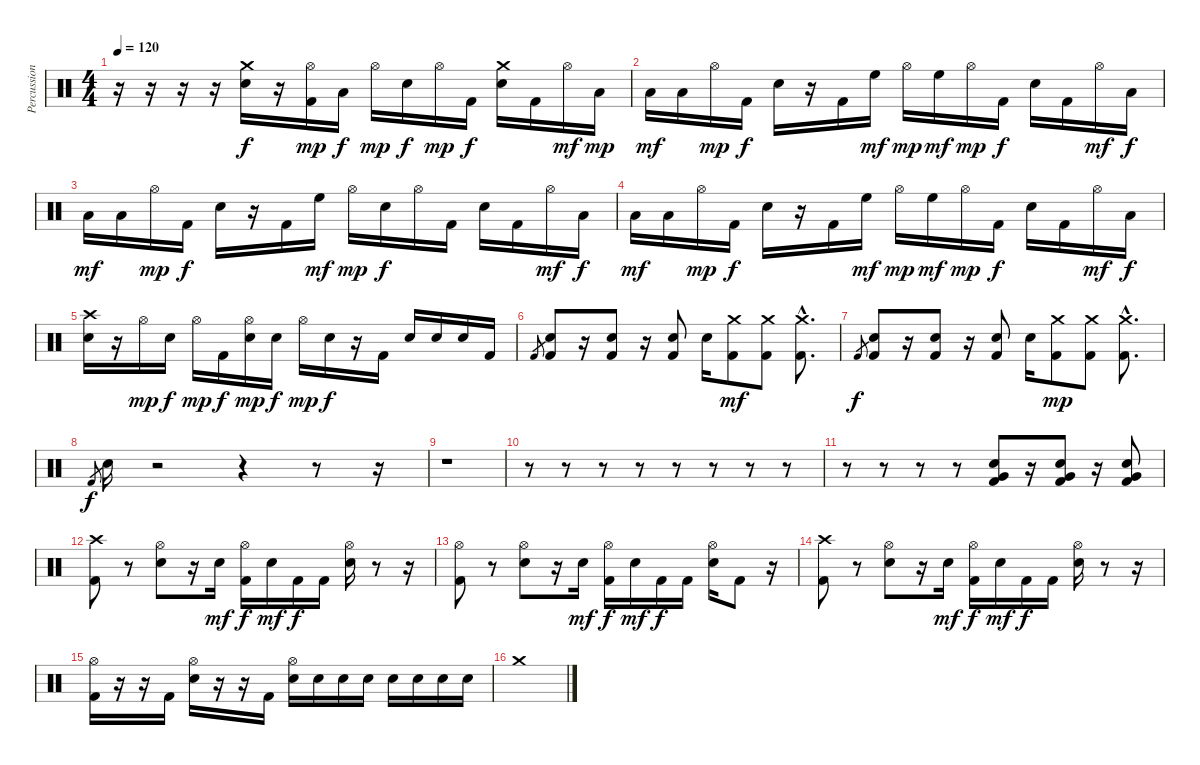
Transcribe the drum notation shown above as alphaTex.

\track ("Percussion" "Percussion") {instrument percussion}
\staff {score}
\articulation defaults
\ts (4 4)
\tempo 120
\clef neutral
\ks c
r.16{dy mp} r.16 r.16 r.16 ("Crash medium (hit)" "Electric Snare (hit)").16{dy f} r.16 ("Hi-Hat (open)" "Kick (hit) 2").16{dy mp} "Low Tom (hit)".16{dy f} "Hi-Hat (open)".16{dy mp} "Electric Snare (hit)".16{dy f} "Hi-Hat (open)".16{dy mp} "Kick (hit) 2".16{dy f} ("Crash medium (hit)" "Electric Snare (hit)").16 "Kick (hit) 2".16 "Hi-Hat (open)".16{dy mf} "Low Floor Tom (hit)".16{dy mp} |
"Low Floor Tom (hit)".16{dy mf} "Low Floor Tom (hit)".16 "Hi-Hat (open)".16{dy mp} "Kick (hit) 2".16{dy f} "Electric Snare (hit)".16 r.16 "Kick (hit) 2".16 "High Floor Tom (hit)".16{dy mf} "Hi-Hat (open)".16{dy mp} "High Floor Tom (hit)".16{dy mf} "Hi-Hat (open)".16{dy mp} "Kick (hit) 2".16{dy f} "Electric Snare (hit)".16 "Kick (hit) 2".16 "Hi-Hat (open)".16{dy mf} "Low Floor Tom (hit)".16{dy f} |
"Low Floor Tom (hit)".16{dy mf} "Low Floor Tom (hit)".16 "Hi-Hat (open)".16{dy mp} "Kick (hit) 2".16{dy f} "Electric Snare (hit)".16 r.16 "Kick (hit) 2".16 "High Floor Tom (hit)".16{dy mf} "Hi-Hat (open)".16{dy mp} "Electric Snare (hit)".16{dy f} "Hi-Hat (open)".16 "Kick (hit) 2".16 "Electric Snare (hit)".16 "Kick (hit) 2".16 "Hi-Hat (open)".16{dy mf} "Low Floor Tom (hit)".16{dy f} |
"Low Floor Tom (hit)".16{dy mf} "Low Floor Tom (hit)".16 "Hi-Hat (open)".16{dy mp} "Kick (hit) 2".16{dy f} "Electric Snare (hit)".16 r.16 "Kick (hit) 2".16 "High Floor Tom (hit)".16{dy mf} "Hi-Hat (open)".16{dy mp} "High Floor Tom (hit)".16{dy mf} "Hi-Hat (open)".16{dy mp} "Kick (hit) 2".16{dy f} "Electric Snare (hit)".16 "Kick (hit) 2".16 "Hi-Hat (open)".16{dy mf} "Low Floor Tom (hit)".16{dy f} |
("Crash high (hit)" "Electric Snare (hit)").16 r.16 "Hi-Hat (open)".16{dy mp} "Electric Snare (hit)".16{dy f} "Hi-Hat (open)".16{dy mp} "Kick (hit) 2".16{dy f} ("Hi-Hat (open)" "Electric Snare (hit)").16{dy mp} "Electric Snare (hit)".16{dy f} "Hi-Hat (open)".16{dy mp} "Electric Snare (hit)".16{dy f} r.16 "Kick (hit) 2".16 "Electric Snare (hit)".16 "Electric Snare (hit)".16 "Electric Snare (hit)".16 "Kick (hit) 2".16 |
"Kick (hit) 2".8{gr} ("Kick (hit) 2" "Electric Snare (hit)").8 r.16 ("Kick (hit) 2" "Electric Snare (hit)").8 r.16 ("Kick (hit) 2" "Electric Snare (hit)").8 "Electric Snare (hit)".16 ("Kick (hit) 2" "Crash medium (hit)").8{dy mf} ("Kick (hit) 2" "Crash medium (hit)").8 ("Kick (hit) 2"{hac} "Crash medium (hit)"{hac}).8{d} |
"Kick (hit) 2".8{gr dy f} ("Kick (hit) 2" "Electric Snare (hit)").8 r.16 ("Kick (hit) 2" "Electric Snare (hit)").8 r.16 ("Kick (hit) 2" "Electric Snare (hit)").8 "Electric Snare (hit)".16 ("Kick (hit) 2" "Crash medium (hit)").8{dy mp} ("Kick (hit) 2" "Crash medium (hit)").8 ("Kick (hit) 2"{hac} "Crash medium (hit)"{hac}).8{d} |
"Kick (hit) 2".8{gr dy f} "Electric Snare (hit)".16 r.2 r.4 r.8 r.16 |
r.1 |
r.8 r.8 r.8 r.8 r.8 r.8 r.8 r.8 |
r.8 r.8 r.8 r.8 ("Very Low Tom (hit)" "Kick (hit) 2" "Electric Snare (hit)").8 r.16 ("Very Low Tom (hit)" "Kick (hit) 2" "Electric Snare (hit)").8 r.16 ("Very Low Tom (hit)" "Kick (hit) 2" "Electric Snare (hit)").8 |
("Crash high (hit)" "Kick (hit) 2").8 r.8 ("Hi-Hat (open)" "Electric Snare (hit)").8 r.16 "Electric Snare (hit)".16{dy mf} ("Hi-Hat (open)" "Kick (hit) 2").16{dy f} "Electric Snare (hit)".16{dy mf} "Kick (hit) 2".16{dy f} "Kick (hit) 2".16 ("Hi-Hat (open)" "Electric Snare (hit)").16 r.8 r.16 |
("Hi-Hat (open)" "Kick (hit) 2").8 r.8 ("Hi-Hat (open)" "Electric Snare (hit)").8 r.16 "Electric Snare (hit)".16{dy mf} ("Hi-Hat (open)" "Kick (hit) 2").16{dy f} "Electric Snare (hit)".16{dy mf} "Kick (hit) 2".16{dy f} "Kick (hit) 2".16 ("Hi-Hat (open)" "Electric Snare (hit)").16 "Kick (hit) 2".8 r.16 |
("Crash high (hit)" "Kick (hit) 2").8 r.8 ("Hi-Hat (open)" "Electric Snare (hit)").8 r.16 "Electric Snare (hit)".16{dy mf} ("Hi-Hat (open)" "Kick (hit) 2").16{dy f} "Electric Snare (hit)".16{dy mf} "Kick (hit) 2".16{dy f} "Kick (hit) 2".16 ("Hi-Hat (open)" "Electric Snare (hit)").16 r.8 r.16 |
("Hi-Hat (open)" "Kick (hit) 2").16 r.16 r.16 "Kick (hit) 2".16 ("Hi-Hat (open)" "Electric Snare (hit)").16 r.16 r.16 "Kick (hit) 2".16 ("Hi-Hat (open)" "Electric Snare (hit)").16 "Electric Snare (hit)".16 "Electric Snare (hit)".16 "Electric Snare (hit)".16 "Electric Snare (hit)".16 "Electric Snare (hit)".16 "Electric Snare (hit)".16 "Electric Snare (hit)".16 |
"Crash medium (hit)".1
